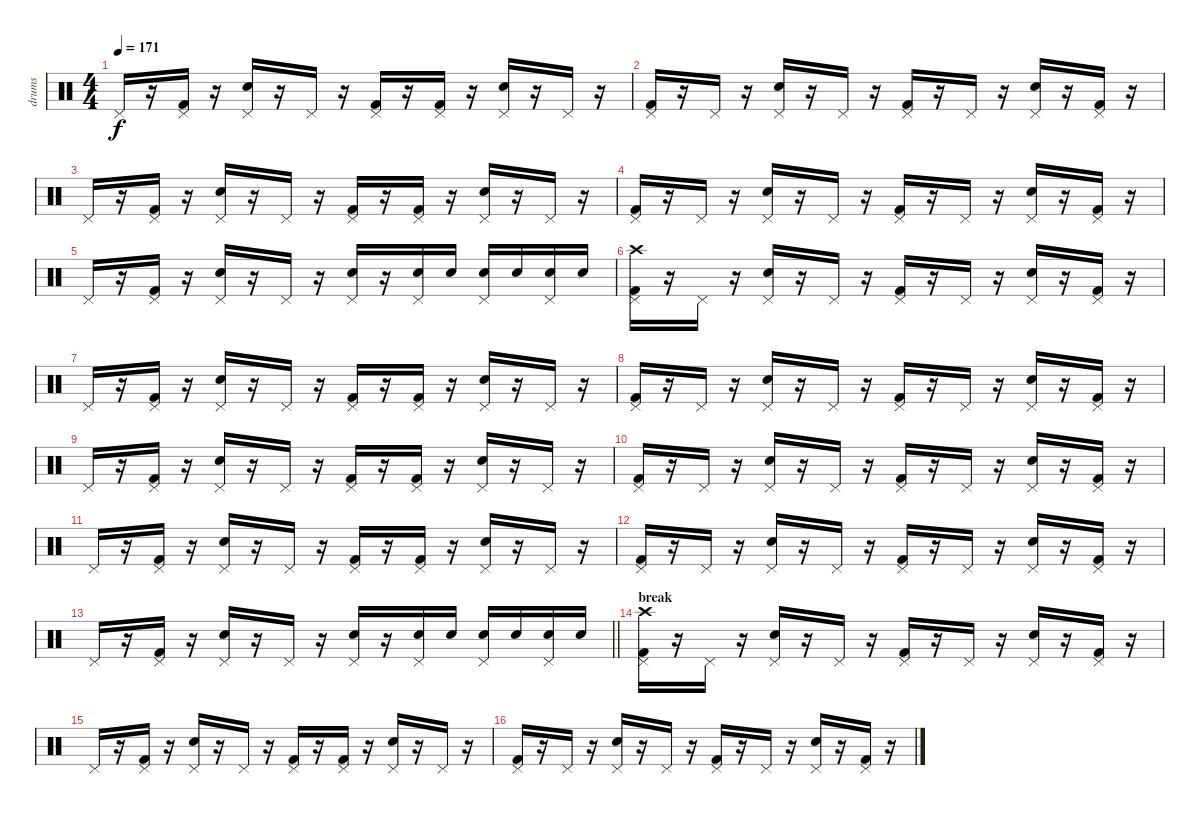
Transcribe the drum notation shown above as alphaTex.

\track ("drums" "drums") {instrument percussion}
\staff {score}
\articulation defaults
\ts (4 4)
\tempo 171
\clef neutral
\ks c "Pedal Hi-Hat (hit)".16{dy f}
r.16 ("Pedal Hi-Hat (hit)" "Kick (hit) 2").16 r.16 ("Pedal Hi-Hat (hit)" "Electric Snare (hit)").16 r.16 "Pedal Hi-Hat (hit)".16 r.16 ("Pedal Hi-Hat (hit)" "Kick (hit) 2").16 r.16 ("Pedal Hi-Hat (hit)" "Kick (hit) 2").16 r.16 ("Pedal Hi-Hat (hit)" "Electric Snare (hit)").16 r.16 "Pedal Hi-Hat (hit)".16 r.16 |
("Pedal Hi-Hat (hit)" "Kick (hit) 2").16 r.16 "Pedal Hi-Hat (hit)".16 r.16 ("Pedal Hi-Hat (hit)" "Electric Snare (hit)").16 r.16 "Pedal Hi-Hat (hit)".16 r.16 ("Pedal Hi-Hat (hit)" "Kick (hit) 2").16 r.16 "Pedal Hi-Hat (hit)".16 r.16 ("Pedal Hi-Hat (hit)" "Electric Snare (hit)").16 r.16 ("Pedal Hi-Hat (hit)" "Kick (hit) 2").16 r.16 |
"Pedal Hi-Hat (hit)".16 r.16 ("Pedal Hi-Hat (hit)" "Kick (hit) 2").16 r.16 ("Pedal Hi-Hat (hit)" "Electric Snare (hit)").16 r.16 "Pedal Hi-Hat (hit)".16 r.16 ("Pedal Hi-Hat (hit)" "Kick (hit) 2").16 r.16 ("Pedal Hi-Hat (hit)" "Kick (hit) 2").16 r.16 ("Pedal Hi-Hat (hit)" "Electric Snare (hit)").16 r.16 "Pedal Hi-Hat (hit)".16 r.16 |
("Pedal Hi-Hat (hit)" "Kick (hit) 2").16 r.16 "Pedal Hi-Hat (hit)".16 r.16 ("Pedal Hi-Hat (hit)" "Electric Snare (hit)").16 r.16 "Pedal Hi-Hat (hit)".16 r.16 ("Pedal Hi-Hat (hit)" "Kick (hit) 2").16 r.16 "Pedal Hi-Hat (hit)".16 r.16 ("Pedal Hi-Hat (hit)" "Electric Snare (hit)").16 r.16 ("Pedal Hi-Hat (hit)" "Kick (hit) 2").16 r.16 |
"Pedal Hi-Hat (hit)".16 r.16 ("Pedal Hi-Hat (hit)" "Kick (hit) 2").16 r.16 ("Pedal Hi-Hat (hit)" "Electric Snare (hit)").16 r.16 "Pedal Hi-Hat (hit)".16 r.16 ("Pedal Hi-Hat (hit)" "Electric Snare (hit)").16 r.16 ("Pedal Hi-Hat (hit)" "Electric Snare (hit)").16 "Electric Snare (hit)".16 ("Pedal Hi-Hat (hit)" "Electric Snare (hit)").16 "Electric Snare (hit)".16 ("Pedal Hi-Hat (hit)" "Electric Snare (hit)").16 "Electric Snare (hit)".16 |
("Pedal Hi-Hat (hit)" "Crash high (hit)" "Kick (hit) 2").16 r.16 "Pedal Hi-Hat (hit)".16 r.16 ("Pedal Hi-Hat (hit)" "Electric Snare (hit)").16 r.16 "Pedal Hi-Hat (hit)".16 r.16 ("Pedal Hi-Hat (hit)" "Kick (hit) 2").16 r.16 "Pedal Hi-Hat (hit)".16 r.16 ("Pedal Hi-Hat (hit)" "Electric Snare (hit)").16 r.16 ("Pedal Hi-Hat (hit)" "Kick (hit) 2").16 r.16 |
"Pedal Hi-Hat (hit)".16 r.16 ("Pedal Hi-Hat (hit)" "Kick (hit) 2").16 r.16 ("Pedal Hi-Hat (hit)" "Electric Snare (hit)").16 r.16 "Pedal Hi-Hat (hit)".16 r.16 ("Pedal Hi-Hat (hit)" "Kick (hit) 2").16 r.16 ("Pedal Hi-Hat (hit)" "Kick (hit) 2").16 r.16 ("Pedal Hi-Hat (hit)" "Electric Snare (hit)").16 r.16 "Pedal Hi-Hat (hit)".16 r.16 |
("Pedal Hi-Hat (hit)" "Kick (hit) 2").16 r.16 "Pedal Hi-Hat (hit)".16 r.16 ("Pedal Hi-Hat (hit)" "Electric Snare (hit)").16 r.16 "Pedal Hi-Hat (hit)".16 r.16 ("Pedal Hi-Hat (hit)" "Kick (hit) 2").16 r.16 "Pedal Hi-Hat (hit)".16 r.16 ("Pedal Hi-Hat (hit)" "Electric Snare (hit)").16 r.16 ("Pedal Hi-Hat (hit)" "Kick (hit) 2").16 r.16 |
"Pedal Hi-Hat (hit)".16 r.16 ("Pedal Hi-Hat (hit)" "Kick (hit) 2").16 r.16 ("Pedal Hi-Hat (hit)" "Electric Snare (hit)").16 r.16 "Pedal Hi-Hat (hit)".16 r.16 ("Pedal Hi-Hat (hit)" "Kick (hit) 2").16 r.16 ("Pedal Hi-Hat (hit)" "Kick (hit) 2").16 r.16 ("Pedal Hi-Hat (hit)" "Electric Snare (hit)").16 r.16 "Pedal Hi-Hat (hit)".16 r.16 |
("Pedal Hi-Hat (hit)" "Kick (hit) 2").16 r.16 "Pedal Hi-Hat (hit)".16 r.16 ("Pedal Hi-Hat (hit)" "Electric Snare (hit)").16 r.16 "Pedal Hi-Hat (hit)".16 r.16 ("Pedal Hi-Hat (hit)" "Kick (hit) 2").16 r.16 "Pedal Hi-Hat (hit)".16 r.16 ("Pedal Hi-Hat (hit)" "Electric Snare (hit)").16 r.16 ("Pedal Hi-Hat (hit)" "Kick (hit) 2").16 r.16 |
"Pedal Hi-Hat (hit)".16 r.16 ("Pedal Hi-Hat (hit)" "Kick (hit) 2").16 r.16 ("Pedal Hi-Hat (hit)" "Electric Snare (hit)").16 r.16 "Pedal Hi-Hat (hit)".16 r.16 ("Pedal Hi-Hat (hit)" "Kick (hit) 2").16 r.16 ("Pedal Hi-Hat (hit)" "Kick (hit) 2").16 r.16 ("Pedal Hi-Hat (hit)" "Electric Snare (hit)").16 r.16 "Pedal Hi-Hat (hit)".16 r.16 |
("Pedal Hi-Hat (hit)" "Kick (hit) 2").16 r.16 "Pedal Hi-Hat (hit)".16 r.16 ("Pedal Hi-Hat (hit)" "Electric Snare (hit)").16 r.16 "Pedal Hi-Hat (hit)".16 r.16 ("Pedal Hi-Hat (hit)" "Kick (hit) 2").16 r.16 "Pedal Hi-Hat (hit)".16 r.16 ("Pedal Hi-Hat (hit)" "Electric Snare (hit)").16 r.16 ("Pedal Hi-Hat (hit)" "Kick (hit) 2").16 r.16 |
\barLineRight lightlight "Pedal Hi-Hat (hit)".16
r.16 ("Pedal Hi-Hat (hit)" "Kick (hit) 2").16 r.16 ("Pedal Hi-Hat (hit)" "Electric Snare (hit)").16 r.16 "Pedal Hi-Hat (hit)".16 r.16 ("Pedal Hi-Hat (hit)" "Electric Snare (hit)").16 r.16 ("Pedal Hi-Hat (hit)" "Electric Snare (hit)").16 "Electric Snare (hit)".16 ("Pedal Hi-Hat (hit)" "Electric Snare (hit)").16 "Electric Snare (hit)".16 ("Pedal Hi-Hat (hit)" "Electric Snare (hit)").16 "Electric Snare (hit)".16 |
\section ("" "break")
("Pedal Hi-Hat (hit)" "Crash high (hit)" "Kick (hit) 2").16 r.16 "Pedal Hi-Hat (hit)".16 r.16 ("Pedal Hi-Hat (hit)" "Electric Snare (hit)").16 r.16 "Pedal Hi-Hat (hit)".16 r.16 ("Pedal Hi-Hat (hit)" "Kick (hit) 2").16 r.16 "Pedal Hi-Hat (hit)".16 r.16 ("Pedal Hi-Hat (hit)" "Electric Snare (hit)").16 r.16 ("Pedal Hi-Hat (hit)" "Kick (hit) 2").16 r.16 |
"Pedal Hi-Hat (hit)".16 r.16 ("Pedal Hi-Hat (hit)" "Kick (hit) 2").16 r.16 ("Pedal Hi-Hat (hit)" "Electric Snare (hit)").16 r.16 "Pedal Hi-Hat (hit)".16 r.16 ("Pedal Hi-Hat (hit)" "Kick (hit) 2").16 r.16 ("Pedal Hi-Hat (hit)" "Kick (hit) 2").16 r.16 ("Pedal Hi-Hat (hit)" "Electric Snare (hit)").16 r.16 "Pedal Hi-Hat (hit)".16 r.16 |
("Pedal Hi-Hat (hit)" "Kick (hit) 2").16 r.16 "Pedal Hi-Hat (hit)".16 r.16 ("Pedal Hi-Hat (hit)" "Electric Snare (hit)").16 r.16 "Pedal Hi-Hat (hit)".16 r.16 ("Pedal Hi-Hat (hit)" "Kick (hit) 2").16 r.16 "Pedal Hi-Hat (hit)".16 r.16 ("Pedal Hi-Hat (hit)" "Electric Snare (hit)").16 r.16 ("Pedal Hi-Hat (hit)" "Kick (hit) 2").16 r.16
